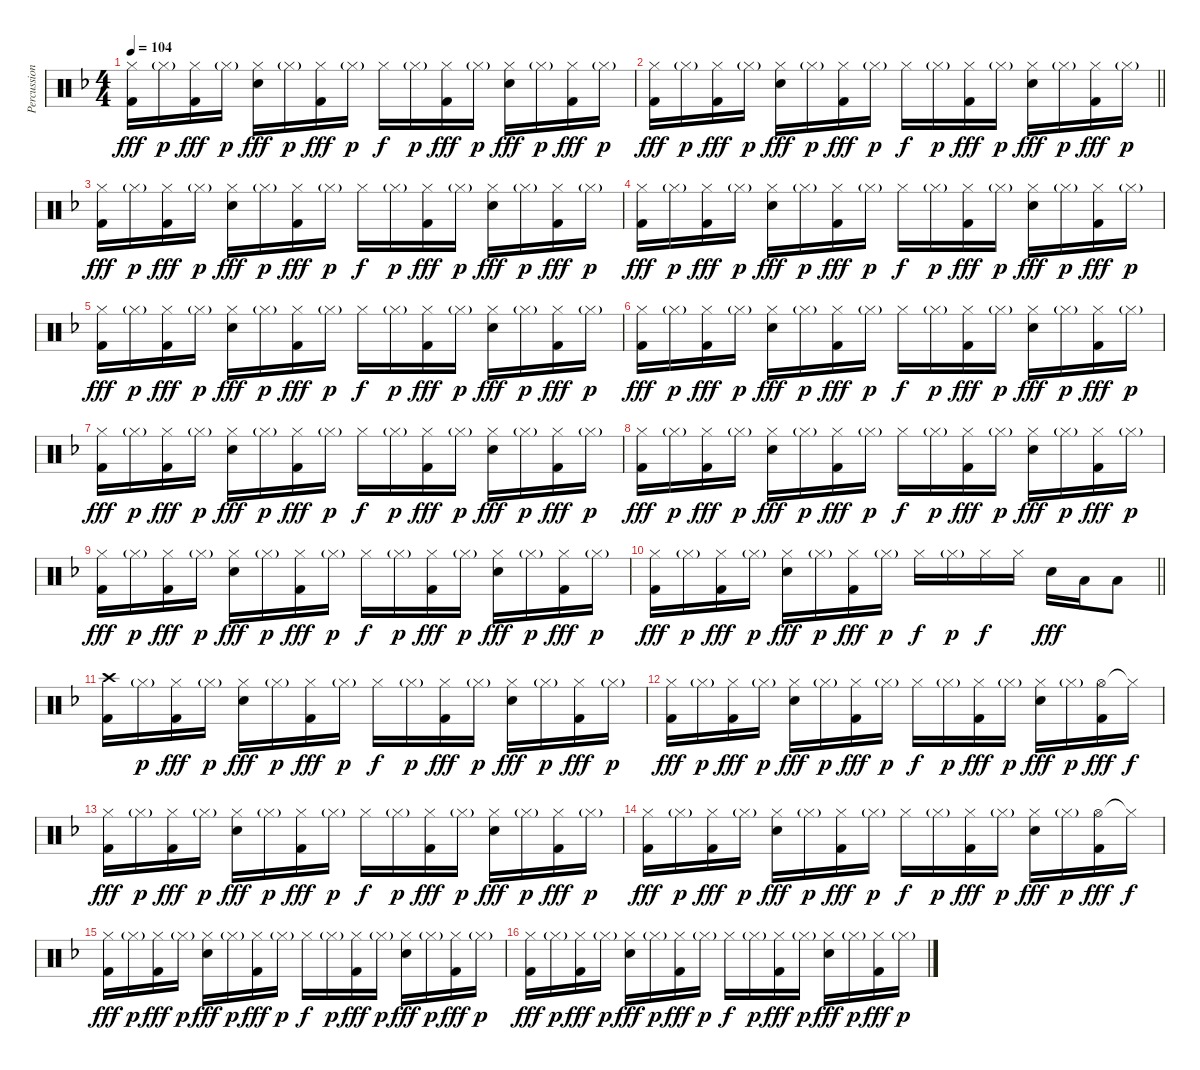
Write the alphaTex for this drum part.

\track ("Percussion" "Percussion") {instrument percussion}
\staff {score}
\articulation defaults
\ts (4 4)
\tempo 104
\clef neutral
\ks dminor
("Hi-Hat (closed)" "Kick (hit) 2").16{dy fff} "Hi-Hat (closed)"{g}.16{dy p} ("Hi-Hat (closed)" "Kick (hit) 2").16{dy fff} "Hi-Hat (closed)"{g}.16{dy p} ("Hi-Hat (closed)" "Snare (hit) 2").16{dy fff} "Hi-Hat (closed)"{g}.16{dy p} ("Hi-Hat (closed)" "Kick (hit) 2").16{dy fff} "Hi-Hat (closed)"{g}.16{dy p} "Hi-Hat (closed)".16{dy f} "Hi-Hat (closed)"{g}.16{dy p} ("Hi-Hat (closed)" "Kick (hit) 2").16{dy fff} "Hi-Hat (closed)"{g}.16{dy p} ("Hi-Hat (closed)" "Snare (hit) 2").16{dy fff} "Hi-Hat (closed)"{g}.16{dy p} ("Hi-Hat (closed)" "Kick (hit) 2").16{dy fff} "Hi-Hat (closed)"{g}.16{dy p} |
\barLineRight lightlight
("Hi-Hat (closed)" "Kick (hit) 2").16{dy fff} "Hi-Hat (closed)"{g}.16{dy p} ("Hi-Hat (closed)" "Kick (hit) 2").16{dy fff} "Hi-Hat (closed)"{g}.16{dy p} ("Hi-Hat (closed)" "Snare (hit) 2").16{dy fff} "Hi-Hat (closed)"{g}.16{dy p} ("Hi-Hat (closed)" "Kick (hit) 2").16{dy fff} "Hi-Hat (closed)"{g}.16{dy p} "Hi-Hat (closed)".16{dy f} "Hi-Hat (closed)"{g}.16{dy p} ("Hi-Hat (closed)" "Kick (hit) 2").16{dy fff} "Hi-Hat (closed)"{g}.16{dy p} ("Hi-Hat (closed)" "Snare (hit) 2").16{dy fff} "Hi-Hat (closed)"{g}.16{dy p} ("Hi-Hat (closed)" "Kick (hit) 2").16{dy fff} "Hi-Hat (closed)"{g}.16{dy p} |
("Hi-Hat (closed)" "Kick (hit) 2").16{dy fff} "Hi-Hat (closed)"{g}.16{dy p} ("Hi-Hat (closed)" "Kick (hit) 2").16{dy fff} "Hi-Hat (closed)"{g}.16{dy p} ("Hi-Hat (closed)" "Snare (hit) 2").16{dy fff} "Hi-Hat (closed)"{g}.16{dy p} ("Hi-Hat (closed)" "Kick (hit) 2").16{dy fff} "Hi-Hat (closed)"{g}.16{dy p} "Hi-Hat (closed)".16{dy f} "Hi-Hat (closed)"{g}.16{dy p} ("Hi-Hat (closed)" "Kick (hit) 2").16{dy fff} "Hi-Hat (closed)"{g}.16{dy p} ("Hi-Hat (closed)" "Snare (hit) 2").16{dy fff} "Hi-Hat (closed)"{g}.16{dy p} ("Hi-Hat (closed)" "Kick (hit) 2").16{dy fff} "Hi-Hat (closed)"{g}.16{dy p} |
("Hi-Hat (closed)" "Kick (hit) 2").16{dy fff} "Hi-Hat (closed)"{g}.16{dy p} ("Hi-Hat (closed)" "Kick (hit) 2").16{dy fff} "Hi-Hat (closed)"{g}.16{dy p} ("Hi-Hat (closed)" "Snare (hit) 2").16{dy fff} "Hi-Hat (closed)"{g}.16{dy p} ("Hi-Hat (closed)" "Kick (hit) 2").16{dy fff} "Hi-Hat (closed)"{g}.16{dy p} "Hi-Hat (closed)".16{dy f} "Hi-Hat (closed)"{g}.16{dy p} ("Hi-Hat (closed)" "Kick (hit) 2").16{dy fff} "Hi-Hat (closed)"{g}.16{dy p} ("Hi-Hat (closed)" "Snare (hit) 2").16{dy fff} "Hi-Hat (closed)"{g}.16{dy p} ("Hi-Hat (closed)" "Kick (hit) 2").16{dy fff} "Hi-Hat (closed)"{g}.16{dy p} |
("Hi-Hat (closed)" "Kick (hit) 2").16{dy fff} "Hi-Hat (closed)"{g}.16{dy p} ("Hi-Hat (closed)" "Kick (hit) 2").16{dy fff} "Hi-Hat (closed)"{g}.16{dy p} ("Hi-Hat (closed)" "Snare (hit) 2").16{dy fff} "Hi-Hat (closed)"{g}.16{dy p} ("Hi-Hat (closed)" "Kick (hit) 2").16{dy fff} "Hi-Hat (closed)"{g}.16{dy p} "Hi-Hat (closed)".16{dy f} "Hi-Hat (closed)"{g}.16{dy p} ("Hi-Hat (closed)" "Kick (hit) 2").16{dy fff} "Hi-Hat (closed)"{g}.16{dy p} ("Hi-Hat (closed)" "Snare (hit) 2").16{dy fff} "Hi-Hat (closed)"{g}.16{dy p} ("Hi-Hat (closed)" "Kick (hit) 2").16{dy fff} "Hi-Hat (closed)"{g}.16{dy p} |
("Hi-Hat (closed)" "Kick (hit) 2").16{dy fff} "Hi-Hat (closed)"{g}.16{dy p} ("Hi-Hat (closed)" "Kick (hit) 2").16{dy fff} "Hi-Hat (closed)"{g}.16{dy p} ("Hi-Hat (closed)" "Snare (hit) 2").16{dy fff} "Hi-Hat (closed)"{g}.16{dy p} ("Hi-Hat (closed)" "Kick (hit) 2").16{dy fff} "Hi-Hat (closed)"{g}.16{dy p} "Hi-Hat (closed)".16{dy f} "Hi-Hat (closed)"{g}.16{dy p} ("Hi-Hat (closed)" "Kick (hit) 2").16{dy fff} "Hi-Hat (closed)"{g}.16{dy p} ("Hi-Hat (closed)" "Snare (hit) 2").16{dy fff} "Hi-Hat (closed)"{g}.16{dy p} ("Hi-Hat (closed)" "Kick (hit) 2").16{dy fff} "Hi-Hat (closed)"{g}.16{dy p} |
("Hi-Hat (closed)" "Kick (hit) 2").16{dy fff} "Hi-Hat (closed)"{g}.16{dy p} ("Hi-Hat (closed)" "Kick (hit) 2").16{dy fff} "Hi-Hat (closed)"{g}.16{dy p} ("Hi-Hat (closed)" "Snare (hit) 2").16{dy fff} "Hi-Hat (closed)"{g}.16{dy p} ("Hi-Hat (closed)" "Kick (hit) 2").16{dy fff} "Hi-Hat (closed)"{g}.16{dy p} "Hi-Hat (closed)".16{dy f} "Hi-Hat (closed)"{g}.16{dy p} ("Hi-Hat (closed)" "Kick (hit) 2").16{dy fff} "Hi-Hat (closed)"{g}.16{dy p} ("Hi-Hat (closed)" "Snare (hit) 2").16{dy fff} "Hi-Hat (closed)"{g}.16{dy p} ("Hi-Hat (closed)" "Kick (hit) 2").16{dy fff} "Hi-Hat (closed)"{g}.16{dy p} |
("Hi-Hat (closed)" "Kick (hit) 2").16{dy fff} "Hi-Hat (closed)"{g}.16{dy p} ("Hi-Hat (closed)" "Kick (hit) 2").16{dy fff} "Hi-Hat (closed)"{g}.16{dy p} ("Hi-Hat (closed)" "Snare (hit) 2").16{dy fff} "Hi-Hat (closed)"{g}.16{dy p} ("Hi-Hat (closed)" "Kick (hit) 2").16{dy fff} "Hi-Hat (closed)"{g}.16{dy p} "Hi-Hat (closed)".16{dy f} "Hi-Hat (closed)"{g}.16{dy p} ("Hi-Hat (closed)" "Kick (hit) 2").16{dy fff} "Hi-Hat (closed)"{g}.16{dy p} ("Hi-Hat (closed)" "Snare (hit) 2").16{dy fff} "Hi-Hat (closed)"{g}.16{dy p} ("Hi-Hat (closed)" "Kick (hit) 2").16{dy fff} "Hi-Hat (closed)"{g}.16{dy p} |
("Hi-Hat (closed)" "Kick (hit) 2").16{dy fff} "Hi-Hat (closed)"{g}.16{dy p} ("Hi-Hat (closed)" "Kick (hit) 2").16{dy fff} "Hi-Hat (closed)"{g}.16{dy p} ("Hi-Hat (closed)" "Snare (hit) 2").16{dy fff} "Hi-Hat (closed)"{g}.16{dy p} ("Hi-Hat (closed)" "Kick (hit) 2").16{dy fff} "Hi-Hat (closed)"{g}.16{dy p} "Hi-Hat (closed)".16{dy f} "Hi-Hat (closed)"{g}.16{dy p} ("Hi-Hat (closed)" "Kick (hit) 2").16{dy fff} "Hi-Hat (closed)"{g}.16{dy p} ("Hi-Hat (closed)" "Snare (hit) 2").16{dy fff} "Hi-Hat (closed)"{g}.16{dy p} ("Hi-Hat (closed)" "Kick (hit) 2").16{dy fff} "Hi-Hat (closed)"{g}.16{dy p} |
\barLineRight lightlight
("Hi-Hat (closed)" "Kick (hit) 2").16{dy fff} "Hi-Hat (closed)"{g}.16{dy p} ("Hi-Hat (closed)" "Kick (hit) 2").16{dy fff} "Hi-Hat (closed)"{g}.16{dy p} ("Hi-Hat (closed)" "Snare (hit) 2").16{dy fff} "Hi-Hat (closed)"{g}.16{dy p} ("Hi-Hat (closed)" "Kick (hit) 2").16{dy fff} "Hi-Hat (closed)"{g}.16{dy p} "Hi-Hat (closed)".16{dy f} "Hi-Hat (closed)"{g}.16{dy p} "Hi-Hat (closed)".16{dy f} "Hi-Hat (closed)".16 "Snare (hit) 2".16{dy fff} "Low Tom (hit)".16 "Low Floor Tom (hit)".8 |
("Crash high (hit)" "Kick (hit) 2").16 "Hi-Hat (closed)"{g}.16{dy p} ("Hi-Hat (closed)" "Kick (hit) 2").16{dy fff} "Hi-Hat (closed)"{g}.16{dy p} ("Hi-Hat (closed)" "Snare (hit) 2").16{dy fff} "Hi-Hat (closed)"{g}.16{dy p} ("Hi-Hat (closed)" "Kick (hit) 2").16{dy fff} "Hi-Hat (closed)"{g}.16{dy p} "Hi-Hat (closed)".16{dy f} "Hi-Hat (closed)"{g}.16{dy p} ("Hi-Hat (closed)" "Kick (hit) 2").16{dy fff} "Hi-Hat (closed)"{g}.16{dy p} ("Hi-Hat (closed)" "Snare (hit) 2").16{dy fff} "Hi-Hat (closed)"{g}.16{dy p} ("Hi-Hat (closed)" "Kick (hit) 2").16{dy fff} "Hi-Hat (closed)"{g}.16{dy p} |
("Hi-Hat (closed)" "Kick (hit) 2").16{dy fff} "Hi-Hat (closed)"{g}.16{dy p} ("Hi-Hat (closed)" "Kick (hit) 2").16{dy fff} "Hi-Hat (closed)"{g}.16{dy p} ("Hi-Hat (closed)" "Snare (hit) 2").16{dy fff} "Hi-Hat (closed)"{g}.16{dy p} ("Hi-Hat (closed)" "Kick (hit) 2").16{dy fff} "Hi-Hat (closed)"{g}.16{dy p} "Hi-Hat (closed)".16{dy f} "Hi-Hat (closed)"{g}.16{dy p} ("Hi-Hat (closed)" "Kick (hit) 2").16{dy fff} "Hi-Hat (closed)"{g}.16{dy p} ("Hi-Hat (closed)" "Snare (hit) 2").16{dy fff} "Hi-Hat (closed)"{g}.16{dy p} ("Hi-Hat (open)" "Kick (hit) 2").16{dy fff} "Hi-Hat (closed)"{t}.16{dy f} |
("Hi-Hat (closed)" "Kick (hit) 2").16{dy fff} "Hi-Hat (closed)"{g}.16{dy p} ("Hi-Hat (closed)" "Kick (hit) 2").16{dy fff} "Hi-Hat (closed)"{g}.16{dy p} ("Hi-Hat (closed)" "Snare (hit) 2").16{dy fff} "Hi-Hat (closed)"{g}.16{dy p} ("Hi-Hat (closed)" "Kick (hit) 2").16{dy fff} "Hi-Hat (closed)"{g}.16{dy p} "Hi-Hat (closed)".16{dy f} "Hi-Hat (closed)"{g}.16{dy p} ("Hi-Hat (closed)" "Kick (hit) 2").16{dy fff} "Hi-Hat (closed)"{g}.16{dy p} ("Hi-Hat (closed)" "Snare (hit) 2").16{dy fff} "Hi-Hat (closed)"{g}.16{dy p} ("Hi-Hat (closed)" "Kick (hit) 2").16{dy fff} "Hi-Hat (closed)"{g}.16{dy p} |
("Hi-Hat (closed)" "Kick (hit) 2").16{dy fff} "Hi-Hat (closed)"{g}.16{dy p} ("Hi-Hat (closed)" "Kick (hit) 2").16{dy fff} "Hi-Hat (closed)"{g}.16{dy p} ("Hi-Hat (closed)" "Snare (hit) 2").16{dy fff} "Hi-Hat (closed)"{g}.16{dy p} ("Hi-Hat (closed)" "Kick (hit) 2").16{dy fff} "Hi-Hat (closed)"{g}.16{dy p} "Hi-Hat (closed)".16{dy f} "Hi-Hat (closed)"{g}.16{dy p} ("Hi-Hat (closed)" "Kick (hit) 2").16{dy fff} "Hi-Hat (closed)"{g}.16{dy p} ("Hi-Hat (closed)" "Snare (hit) 2").16{dy fff} "Hi-Hat (closed)"{g}.16{dy p} ("Hi-Hat (open)" "Kick (hit) 2").16{dy fff} "Hi-Hat (closed)"{t}.16{dy f} |
("Hi-Hat (closed)" "Kick (hit) 2").16{dy fff} "Hi-Hat (closed)"{g}.16{dy p} ("Hi-Hat (closed)" "Kick (hit) 2").16{dy fff} "Hi-Hat (closed)"{g}.16{dy p} ("Hi-Hat (closed)" "Snare (hit) 2").16{dy fff} "Hi-Hat (closed)"{g}.16{dy p} ("Hi-Hat (closed)" "Kick (hit) 2").16{dy fff} "Hi-Hat (closed)"{g}.16{dy p} "Hi-Hat (closed)".16{dy f} "Hi-Hat (closed)"{g}.16{dy p} ("Hi-Hat (closed)" "Kick (hit) 2").16{dy fff} "Hi-Hat (closed)"{g}.16{dy p} ("Hi-Hat (closed)" "Snare (hit) 2").16{dy fff} "Hi-Hat (closed)"{g}.16{dy p} ("Hi-Hat (closed)" "Kick (hit) 2").16{dy fff} "Hi-Hat (closed)"{g}.16{dy p} |
("Hi-Hat (closed)" "Kick (hit) 2").16{dy fff} "Hi-Hat (closed)"{g}.16{dy p} ("Hi-Hat (closed)" "Kick (hit) 2").16{dy fff} "Hi-Hat (closed)"{g}.16{dy p} ("Hi-Hat (closed)" "Snare (hit) 2").16{dy fff} "Hi-Hat (closed)"{g}.16{dy p} ("Hi-Hat (closed)" "Kick (hit) 2").16{dy fff} "Hi-Hat (closed)"{g}.16{dy p} "Hi-Hat (closed)".16{dy f} "Hi-Hat (closed)"{g}.16{dy p} ("Hi-Hat (closed)" "Kick (hit) 2").16{dy fff} "Hi-Hat (closed)"{g}.16{dy p} ("Hi-Hat (closed)" "Snare (hit) 2").16{dy fff} "Hi-Hat (closed)"{g}.16{dy p} ("Hi-Hat (closed)" "Kick (hit) 2").16{dy fff} "Hi-Hat (closed)"{g}.16{dy p}
